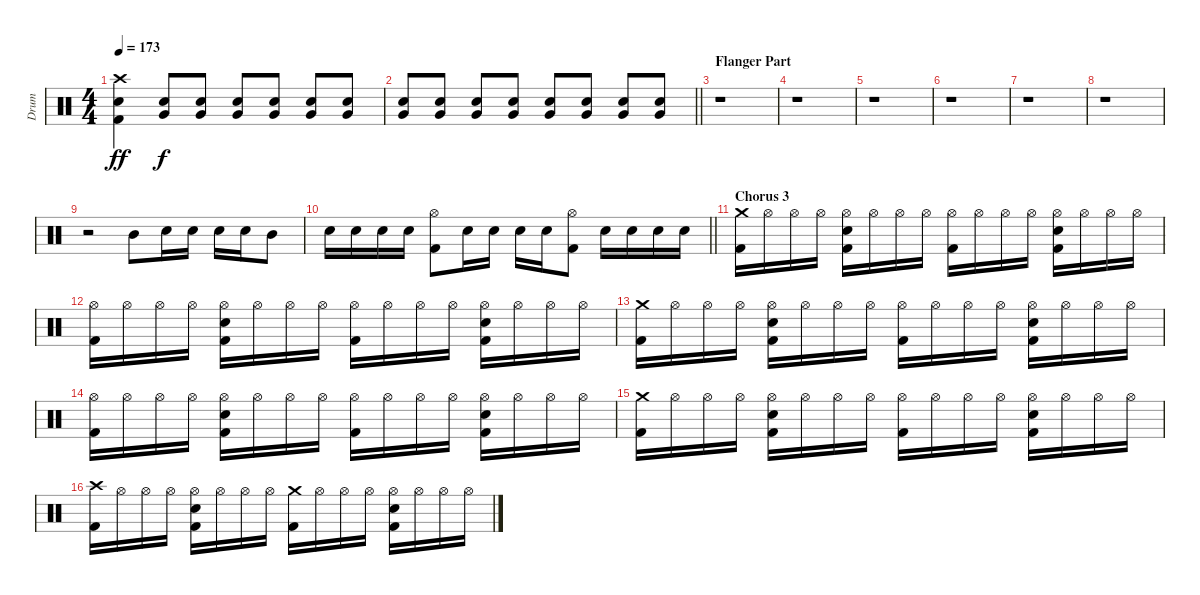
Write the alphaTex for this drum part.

\track ("Drum" "Drum") {instrument percussion}
\staff {score}
\articulation defaults
\ts (4 4)
\tempo 173
\clef neutral
\ks c
("Kick (hit) 2" "Snare (hit) 2" "Crash high (hit)").4{dy ff} ("Snare (hit) 2" "Very Low Tom (hit)").8{dy f} ("Snare (hit) 2" "Very Low Tom (hit)").8 ("Snare (hit) 2" "Very Low Tom (hit)").8 ("Snare (hit) 2" "Very Low Tom (hit)").8 ("Snare (hit) 2" "Very Low Tom (hit)").8 ("Snare (hit) 2" "Very Low Tom (hit)").8 |
\barLineRight lightlight
("Snare (hit) 2" "Very Low Tom (hit)").8 ("Snare (hit) 2" "Very Low Tom (hit)").8 ("Snare (hit) 2" "Very Low Tom (hit)").8 ("Snare (hit) 2" "Very Low Tom (hit)").8 ("Snare (hit) 2" "Very Low Tom (hit)").8 ("Snare (hit) 2" "Very Low Tom (hit)").8 ("Snare (hit) 2" "Very Low Tom (hit)").8 ("Snare (hit) 2" "Very Low Tom (hit)").8 |
\section ("" "Flanger Part")
r.1 |
r.1 |
r.1 |
r.1 |
r.1 |
r.1 |
r.2 "Mid Tom (hit)".8 "Snare (hit) 2".16 "Snare (hit) 2".16 "Snare (hit) 2".16 "Snare (hit) 2".16 "Mid Tom (hit)".8 |
\barLineRight lightlight "Snare (hit) 2".16 "Snare (hit) 2".16 "Snare (hit) 2".16 "Snare (hit) 2".16
("Hi-Hat (open)" "Kick (hit) 2").8 "Snare (hit) 2".16 "Snare (hit) 2".16 "Snare (hit) 2".16 "Snare (hit) 2".16 ("Hi-Hat (open)" "Kick (hit) 2").8 "Snare (hit) 2".16 "Snare (hit) 2".16 "Snare (hit) 2".16 "Snare (hit) 2".16 |
\section ("" "Chorus 3")
("Crash medium (hit)" "Kick (hit) 2").16 "Hi-Hat (open)".16 "Hi-Hat (open)".16 "Hi-Hat (open)".16 ("Hi-Hat (open)" "Kick (hit) 2" "Snare (hit) 2").16 "Hi-Hat (open)".16 "Hi-Hat (open)".16 "Hi-Hat (open)".16 ("Hi-Hat (open)" "Kick (hit) 2").16 "Hi-Hat (open)".16 "Hi-Hat (open)".16 "Hi-Hat (open)".16 ("Hi-Hat (open)" "Kick (hit) 2" "Snare (hit) 2").16 "Hi-Hat (open)".16 "Hi-Hat (open)".16 "Hi-Hat (open)".16 |
("Hi-Hat (open)" "Kick (hit) 2").16 "Hi-Hat (open)".16 "Hi-Hat (open)".16 "Hi-Hat (open)".16 ("Hi-Hat (open)" "Kick (hit) 2" "Snare (hit) 2").16 "Hi-Hat (open)".16 "Hi-Hat (open)".16 "Hi-Hat (open)".16 ("Hi-Hat (open)" "Kick (hit) 2").16 "Hi-Hat (open)".16 "Hi-Hat (open)".16 "Hi-Hat (open)".16 ("Hi-Hat (open)" "Kick (hit) 2" "Snare (hit) 2").16 "Hi-Hat (open)".16 "Hi-Hat (open)".16 "Hi-Hat (open)".16 |
("Crash medium (hit)" "Kick (hit) 2").16 "Hi-Hat (open)".16 "Hi-Hat (open)".16 "Hi-Hat (open)".16 ("Hi-Hat (open)" "Kick (hit) 2" "Snare (hit) 2").16 "Hi-Hat (open)".16 "Hi-Hat (open)".16 "Hi-Hat (open)".16 ("Hi-Hat (open)" "Kick (hit) 2").16 "Hi-Hat (open)".16 "Hi-Hat (open)".16 "Hi-Hat (open)".16 ("Hi-Hat (open)" "Kick (hit) 2" "Snare (hit) 2").16 "Hi-Hat (open)".16 "Hi-Hat (open)".16 "Hi-Hat (open)".16 |
("Hi-Hat (open)" "Kick (hit) 2").16 "Hi-Hat (open)".16 "Hi-Hat (open)".16 "Hi-Hat (open)".16 ("Hi-Hat (open)" "Kick (hit) 2" "Snare (hit) 2").16 "Hi-Hat (open)".16 "Hi-Hat (open)".16 "Hi-Hat (open)".16 ("Hi-Hat (open)" "Kick (hit) 2").16 "Hi-Hat (open)".16 "Hi-Hat (open)".16 "Hi-Hat (open)".16 ("Hi-Hat (open)" "Kick (hit) 2" "Snare (hit) 2").16 "Hi-Hat (open)".16 "Hi-Hat (open)".16 "Hi-Hat (open)".16 |
("Crash medium (hit)" "Kick (hit) 2").16 "Hi-Hat (open)".16 "Hi-Hat (open)".16 "Hi-Hat (open)".16 ("Hi-Hat (open)" "Kick (hit) 2" "Snare (hit) 2").16 "Hi-Hat (open)".16 "Hi-Hat (open)".16 "Hi-Hat (open)".16 ("Hi-Hat (open)" "Kick (hit) 2").16 "Hi-Hat (open)".16 "Hi-Hat (open)".16 "Hi-Hat (open)".16 ("Hi-Hat (open)" "Kick (hit) 2" "Snare (hit) 2").16 "Hi-Hat (open)".16 "Hi-Hat (open)".16 "Hi-Hat (open)".16 |
("Crash high (hit)" "Kick (hit) 2").16 "Hi-Hat (open)".16 "Hi-Hat (open)".16 "Hi-Hat (open)".16 ("Hi-Hat (open)" "Kick (hit) 2" "Snare (hit) 2").16 "Hi-Hat (open)".16 "Hi-Hat (open)".16 "Hi-Hat (open)".16 ("Crash medium (hit)" "Kick (hit) 2").16 "Hi-Hat (open)".16 "Hi-Hat (open)".16 "Hi-Hat (open)".16 ("Hi-Hat (open)" "Kick (hit) 2" "Snare (hit) 2").16 "Hi-Hat (open)".16 "Hi-Hat (open)".16 "Hi-Hat (open)".16
